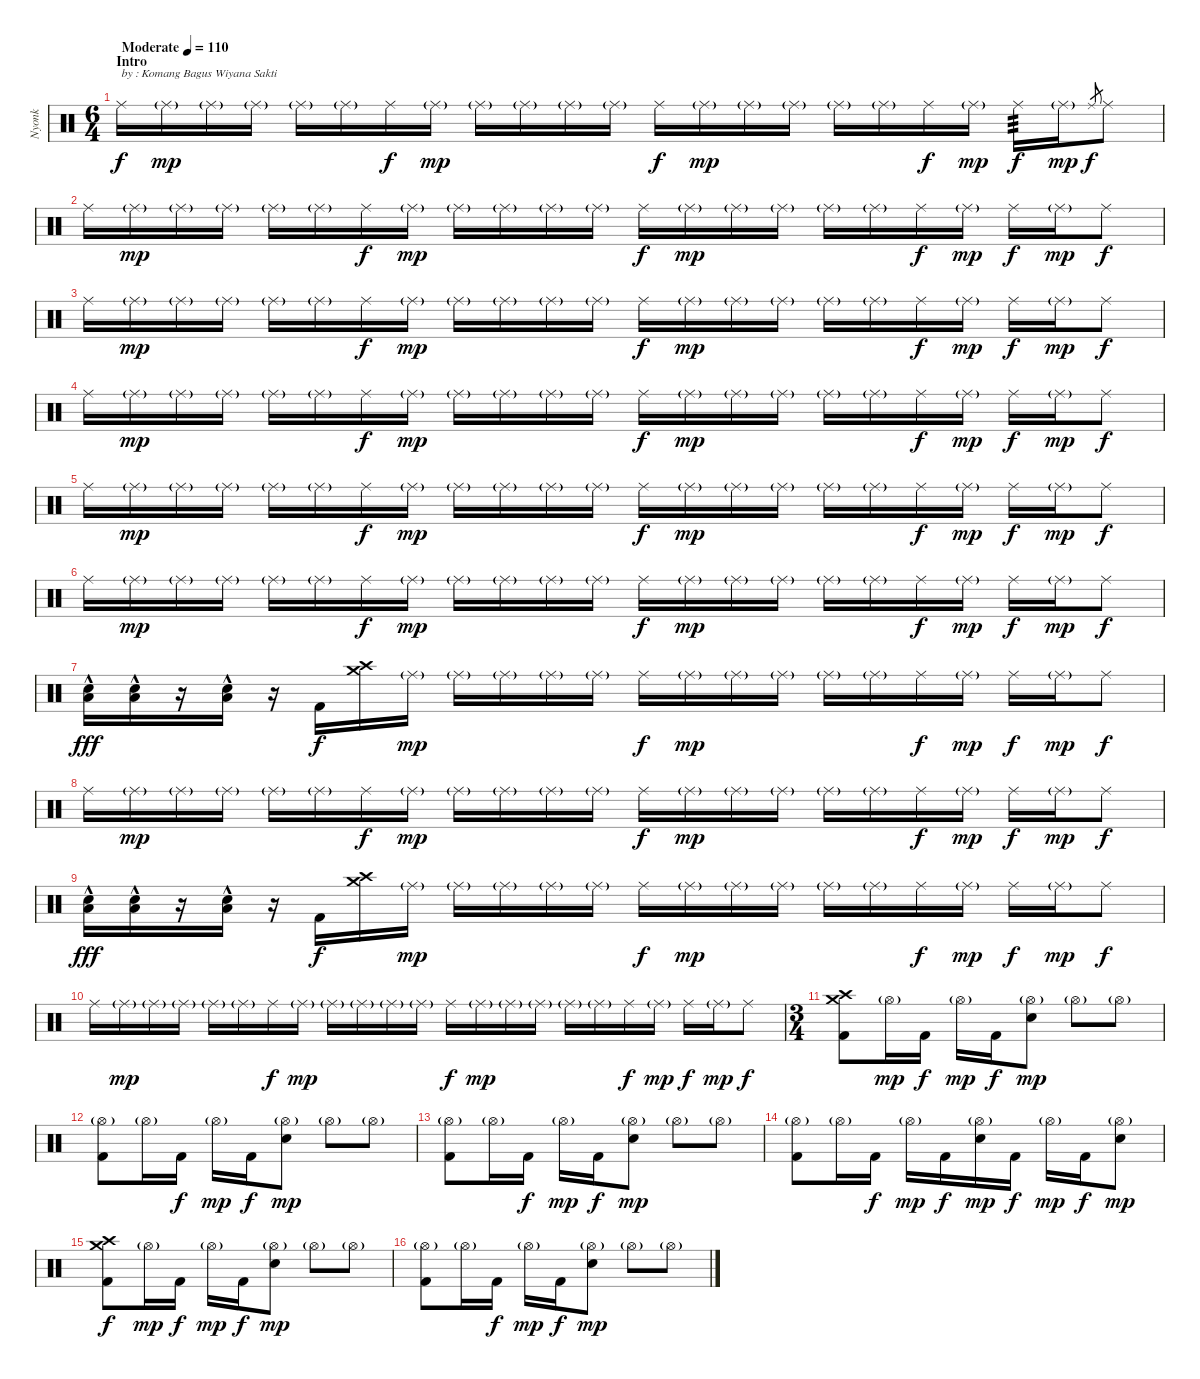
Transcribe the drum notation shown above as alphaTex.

\track ("Nyonk" "Nyonk") {instrument percussion}
\staff {score}
\articulation defaults
\ts (6 4)
\section ("" "Intro")
\tempo (110 "Moderate")
\clef neutral
\ks c "Ride (middle)".16{txt "by : Komang Bagus Wiyana Sakti" dy f} "Ride (middle)"{g}.16{dy mp} "Ride (middle)"{g}.16 "Ride (middle)"{g}.16 "Ride (middle)"{g}.16 "Ride (middle)"{g}.16 "Ride (middle)".16{dy f} "Ride (middle)"{g}.16{dy mp} "Ride (middle)"{g}.16 "Ride (middle)"{g}.16 "Ride (middle)"{g}.16 "Ride (middle)"{g}.16 "Ride (middle)".16{dy f} "Ride (middle)"{g}.16{dy mp} "Ride (middle)"{g}.16 "Ride (middle)"{g}.16 "Ride (middle)"{g}.16 "Ride (middle)"{g}.16 "Ride (middle)".16{dy f} "Ride (middle)"{g}.16{dy mp} "Ride (middle)".16{tp 3 dy f} "Ride (middle)"{g}.16{dy mp} "Ride (middle)".8{gr dy f} "Ride (middle)".8
|
"Ride (middle)".16 "Ride (middle)"{g}.16{dy mp} "Ride (middle)"{g}.16 "Ride (middle)"{g}.16 "Ride (middle)"{g}.16 "Ride (middle)"{g}.16 "Ride (middle)".16{dy f} "Ride (middle)"{g}.16{dy mp} "Ride (middle)"{g}.16 "Ride (middle)"{g}.16 "Ride (middle)"{g}.16 "Ride (middle)"{g}.16 "Ride (middle)".16{dy f} "Ride (middle)"{g}.16{dy mp} "Ride (middle)"{g}.16 "Ride (middle)"{g}.16 "Ride (middle)"{g}.16 "Ride (middle)"{g}.16 "Ride (middle)".16{dy f} "Ride (middle)"{g}.16{dy mp} "Ride (middle)".16{dy f} "Ride (middle)"{g}.16{dy mp} "Ride (middle)".8{dy f} |
"Ride (middle)".16 "Ride (middle)"{g}.16{dy mp} "Ride (middle)"{g}.16 "Ride (middle)"{g}.16 "Ride (middle)"{g}.16 "Ride (middle)"{g}.16 "Ride (middle)".16{dy f} "Ride (middle)"{g}.16{dy mp} "Ride (middle)"{g}.16 "Ride (middle)"{g}.16 "Ride (middle)"{g}.16 "Ride (middle)"{g}.16 "Ride (middle)".16{dy f} "Ride (middle)"{g}.16{dy mp} "Ride (middle)"{g}.16 "Ride (middle)"{g}.16 "Ride (middle)"{g}.16 "Ride (middle)"{g}.16 "Ride (middle)".16{dy f} "Ride (middle)"{g}.16{dy mp} "Ride (middle)".16{dy f} "Ride (middle)"{g}.16{dy mp} "Ride (middle)".8{dy f} |
"Ride (middle)".16 "Ride (middle)"{g}.16{dy mp} "Ride (middle)"{g}.16 "Ride (middle)"{g}.16 "Ride (middle)"{g}.16 "Ride (middle)"{g}.16 "Ride (middle)".16{dy f} "Ride (middle)"{g}.16{dy mp} "Ride (middle)"{g}.16 "Ride (middle)"{g}.16 "Ride (middle)"{g}.16 "Ride (middle)"{g}.16 "Ride (middle)".16{dy f} "Ride (middle)"{g}.16{dy mp} "Ride (middle)"{g}.16 "Ride (middle)"{g}.16 "Ride (middle)"{g}.16 "Ride (middle)"{g}.16 "Ride (middle)".16{dy f} "Ride (middle)"{g}.16{dy mp} "Ride (middle)".16{dy f} "Ride (middle)"{g}.16{dy mp} "Ride (middle)".8{dy f} |
"Ride (middle)".16 "Ride (middle)"{g}.16{dy mp} "Ride (middle)"{g}.16 "Ride (middle)"{g}.16 "Ride (middle)"{g}.16 "Ride (middle)"{g}.16 "Ride (middle)".16{dy f} "Ride (middle)"{g}.16{dy mp} "Ride (middle)"{g}.16 "Ride (middle)"{g}.16 "Ride (middle)"{g}.16 "Ride (middle)"{g}.16 "Ride (middle)".16{dy f} "Ride (middle)"{g}.16{dy mp} "Ride (middle)"{g}.16 "Ride (middle)"{g}.16 "Ride (middle)"{g}.16 "Ride (middle)"{g}.16 "Ride (middle)".16{dy f} "Ride (middle)"{g}.16{dy mp} "Ride (middle)".16{dy f} "Ride (middle)"{g}.16{dy mp} "Ride (middle)".8{dy f} |
"Ride (middle)".16 "Ride (middle)"{g}.16{dy mp} "Ride (middle)"{g}.16 "Ride (middle)"{g}.16 "Ride (middle)"{g}.16 "Ride (middle)"{g}.16 "Ride (middle)".16{dy f} "Ride (middle)"{g}.16{dy mp} "Ride (middle)"{g}.16 "Ride (middle)"{g}.16 "Ride (middle)"{g}.16 "Ride (middle)"{g}.16 "Ride (middle)".16{dy f} "Ride (middle)"{g}.16{dy mp} "Ride (middle)"{g}.16 "Ride (middle)"{g}.16 "Ride (middle)"{g}.16 "Ride (middle)"{g}.16 "Ride (middle)".16{dy f} "Ride (middle)"{g}.16{dy mp} "Ride (middle)".16{dy f} "Ride (middle)"{g}.16{dy mp} "Ride (middle)".8{dy f} |
("Low Floor Tom (hit)"{hac} "Electric Snare (hit)").16{dy fff} ("Low Floor Tom (hit)"{hac} "Electric Snare (hit)").16 r.16 ("Low Floor Tom (hit)"{hac} "Electric Snare (hit)").16 r.16 "Kick (hit) 2".16{dy f} ("Crash medium (hit)" "Crash high (hit)").16 "Ride (middle)"{g}.16{dy mp} "Ride (middle)"{g}.16 "Ride (middle)"{g}.16 "Ride (middle)"{g}.16 "Ride (middle)"{g}.16 "Ride (middle)".16{dy f} "Ride (middle)"{g}.16{dy mp} "Ride (middle)"{g}.16 "Ride (middle)"{g}.16 "Ride (middle)"{g}.16 "Ride (middle)"{g}.16 "Ride (middle)".16{dy f} "Ride (middle)"{g}.16{dy mp} "Ride (middle)".16{dy f} "Ride (middle)"{g}.16{dy mp} "Ride (middle)".8{dy f} |
"Ride (middle)".16 "Ride (middle)"{g}.16{dy mp} "Ride (middle)"{g}.16 "Ride (middle)"{g}.16 "Ride (middle)"{g}.16 "Ride (middle)"{g}.16 "Ride (middle)".16{dy f} "Ride (middle)"{g}.16{dy mp} "Ride (middle)"{g}.16 "Ride (middle)"{g}.16 "Ride (middle)"{g}.16 "Ride (middle)"{g}.16 "Ride (middle)".16{dy f} "Ride (middle)"{g}.16{dy mp} "Ride (middle)"{g}.16 "Ride (middle)"{g}.16 "Ride (middle)"{g}.16 "Ride (middle)"{g}.16 "Ride (middle)".16{dy f} "Ride (middle)"{g}.16{dy mp} "Ride (middle)".16{dy f} "Ride (middle)"{g}.16{dy mp} "Ride (middle)".8{dy f} |
("Low Floor Tom (hit)"{hac} "Electric Snare (hit)").16{dy fff} ("Low Floor Tom (hit)"{hac} "Electric Snare (hit)").16 r.16 ("Low Floor Tom (hit)"{hac} "Electric Snare (hit)").16 r.16 "Kick (hit) 2".16{dy f} ("Crash medium (hit)" "Crash high (hit)").16 "Ride (middle)"{g}.16{dy mp} "Ride (middle)"{g}.16 "Ride (middle)"{g}.16 "Ride (middle)"{g}.16 "Ride (middle)"{g}.16 "Ride (middle)".16{dy f} "Ride (middle)"{g}.16{dy mp} "Ride (middle)"{g}.16 "Ride (middle)"{g}.16 "Ride (middle)"{g}.16 "Ride (middle)"{g}.16 "Ride (middle)".16{dy f} "Ride (middle)"{g}.16{dy mp} "Ride (middle)".16{dy f} "Ride (middle)"{g}.16{dy mp} "Ride (middle)".8{dy f} |
"Ride (middle)".16 "Ride (middle)"{g}.16{dy mp} "Ride (middle)"{g}.16 "Ride (middle)"{g}.16 "Ride (middle)"{g}.16 "Ride (middle)"{g}.16 "Ride (middle)".16{dy f} "Ride (middle)"{g}.16{dy mp} "Ride (middle)"{g}.16 "Ride (middle)"{g}.16 "Ride (middle)"{g}.16 "Ride (middle)"{g}.16 "Ride (middle)".16{dy f} "Ride (middle)"{g}.16{dy mp} "Ride (middle)"{g}.16 "Ride (middle)"{g}.16 "Ride (middle)"{g}.16 "Ride (middle)"{g}.16 "Ride (middle)".16{dy f} "Ride (middle)"{g}.16{dy mp} "Ride (middle)".16{dy f} "Ride (middle)"{g}.16{dy mp} "Ride (middle)".8{dy f} |
\ts (3 4)
("Crash medium (hit)" "Crash high (hit)" "Kick (hit) 2").8 "Hi-Hat (open)"{g}.16{dy mp} "Kick (hit) 2".16{dy f} "Hi-Hat (open)"{g}.16{dy mp} "Kick (hit) 2".16{dy f} ("Hi-Hat (open)"{g} "Electric Snare (hit)").8{dy mp} "Hi-Hat (open)"{g}.8 "Hi-Hat (open)"{g}.8 |
("Hi-Hat (open)"{g} "Kick (hit) 2").8 "Hi-Hat (open)"{g}.16 "Kick (hit) 2".16{dy f} "Hi-Hat (open)"{g}.16{dy mp} "Kick (hit) 2".16{dy f} ("Hi-Hat (open)"{g} "Electric Snare (hit)").8{dy mp} "Hi-Hat (open)"{g}.8 "Hi-Hat (open)"{g}.8 |
("Hi-Hat (open)"{g} "Kick (hit) 2").8 "Hi-Hat (open)"{g}.16 "Kick (hit) 2".16{dy f} "Hi-Hat (open)"{g}.16{dy mp} "Kick (hit) 2".16{dy f} ("Hi-Hat (open)"{g} "Electric Snare (hit)").8{dy mp} "Hi-Hat (open)"{g}.8 "Hi-Hat (open)"{g}.8 |
("Hi-Hat (open)"{g} "Kick (hit) 2").8 "Hi-Hat (open)"{g}.16 "Kick (hit) 2".16{dy f} "Hi-Hat (open)"{g}.16{dy mp} "Kick (hit) 2".16{dy f} ("Hi-Hat (open)"{g} "Electric Snare (hit)").16{dy mp} "Kick (hit) 2".16{dy f} "Hi-Hat (open)"{g}.16{dy mp} "Kick (hit) 2".16{dy f} ("Hi-Hat (open)"{g} "Electric Snare (hit)").8{dy mp} |
("Crash medium (hit)" "Crash high (hit)" "Kick (hit) 2").8{dy f} "Hi-Hat (open)"{g}.16{dy mp} "Kick (hit) 2".16{dy f} "Hi-Hat (open)"{g}.16{dy mp} "Kick (hit) 2".16{dy f} ("Hi-Hat (open)"{g} "Electric Snare (hit)").8{dy mp} "Hi-Hat (open)"{g}.8 "Hi-Hat (open)"{g}.8 |
("Hi-Hat (open)"{g} "Kick (hit) 2").8 "Hi-Hat (open)"{g}.16 "Kick (hit) 2".16{dy f} "Hi-Hat (open)"{g}.16{dy mp} "Kick (hit) 2".16{dy f} ("Hi-Hat (open)"{g} "Electric Snare (hit)").8{dy mp} "Hi-Hat (open)"{g}.8 "Hi-Hat (open)"{g}.8
